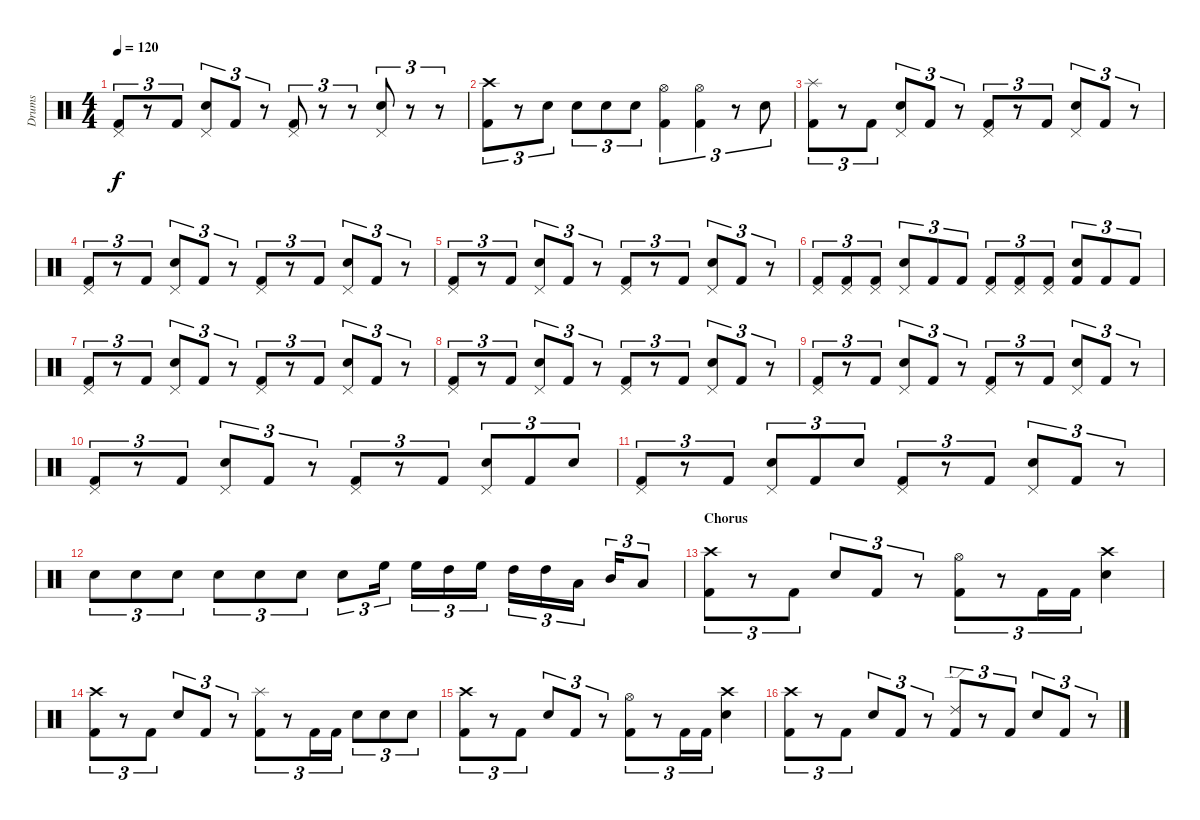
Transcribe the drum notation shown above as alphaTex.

\track ("Drums" "Drums") {instrument percussion}
\staff {score}
\articulation defaults
\ts (4 4)
\tempo 120
\clef neutral
\ks c
("Pedal Hi-Hat (hit)" "Kick (hit) 2").8{tu (3 2) dy f} r.8{tu (3 2)} "Kick (hit) 2".8{tu (3 2)} ("Pedal Hi-Hat (hit)" "Snare (hit) 2").8{tu (3 2)} "Kick (hit) 2".8{tu (3 2)} r.8{tu (3 2)} ("Pedal Hi-Hat (hit)" "Kick (hit) 2").8{tu (3 2)} r.8{tu (3 2)} r.8{tu (3 2)} ("Pedal Hi-Hat (hit)" "Snare (hit) 2").8{tu (3 2)} r.8{tu (3 2)} r.8{tu (3 2)} |
("Crash high (hit)" "Kick (hit) 2").8{tu (3 2)} r.8{tu (3 2)} "Snare (hit) 2".8{tu (3 2)} "Snare (hit) 2".8{tu (3 2)} "Snare (hit) 2".8{tu (3 2)} "Snare (hit) 2".8{tu (3 2)} ("Hi-Hat (open)" "Kick (hit) 2").4{tu (3 2)} ("Hi-Hat (open)" "Kick (hit) 2").4{tu (3 2)} r.8{tu (3 2)} "Snare (hit) 2".8{tu (3 2)} |
("Splash (hit)" "Kick (hit) 2").8{tu (3 2)} r.8{tu (3 2)} "Kick (hit) 2".8{tu (3 2)} ("Pedal Hi-Hat (hit)" "Snare (hit) 2").8{tu (3 2)} "Kick (hit) 2".8{tu (3 2)} r.8{tu (3 2)} ("Pedal Hi-Hat (hit)" "Kick (hit) 2").8{tu (3 2)} r.8{tu (3 2)} "Kick (hit) 2".8{tu (3 2)} ("Pedal Hi-Hat (hit)" "Snare (hit) 2").8{tu (3 2)} "Kick (hit) 2".8{tu (3 2)} r.8{tu (3 2)} |
("Pedal Hi-Hat (hit)" "Kick (hit) 2").8{tu (3 2)} r.8{tu (3 2)} "Kick (hit) 2".8{tu (3 2)} ("Pedal Hi-Hat (hit)" "Snare (hit) 2").8{tu (3 2)} "Kick (hit) 2".8{tu (3 2)} r.8{tu (3 2)} ("Pedal Hi-Hat (hit)" "Kick (hit) 2").8{tu (3 2)} r.8{tu (3 2)} "Kick (hit) 2".8{tu (3 2)} ("Pedal Hi-Hat (hit)" "Snare (hit) 2").8{tu (3 2)} "Kick (hit) 2".8{tu (3 2)} r.8{tu (3 2)} |
("Pedal Hi-Hat (hit)" "Kick (hit) 2").8{tu (3 2)} r.8{tu (3 2)} "Kick (hit) 2".8{tu (3 2)} ("Pedal Hi-Hat (hit)" "Snare (hit) 2").8{tu (3 2)} "Kick (hit) 2".8{tu (3 2)} r.8{tu (3 2)} ("Pedal Hi-Hat (hit)" "Kick (hit) 2").8{tu (3 2)} r.8{tu (3 2)} "Kick (hit) 2".8{tu (3 2)} ("Pedal Hi-Hat (hit)" "Snare (hit) 2").8{tu (3 2)} "Kick (hit) 2".8{tu (3 2)} r.8{tu (3 2)} |
("Pedal Hi-Hat (hit)" "Kick (hit) 2").8{tu (3 2)} ("Pedal Hi-Hat (hit)" "Kick (hit) 2").8{tu (3 2)} ("Pedal Hi-Hat (hit)" "Kick (hit) 2").8{tu (3 2)} ("Pedal Hi-Hat (hit)" "Snare (hit) 2").8{tu (3 2)} "Kick (hit) 2".8{tu (3 2)} "Kick (hit) 2".8{tu (3 2)} ("Pedal Hi-Hat (hit)" "Kick (hit) 2").8{tu (3 2)} ("Pedal Hi-Hat (hit)" "Kick (hit) 2").8{tu (3 2)} ("Pedal Hi-Hat (hit)" "Kick (hit) 2").8{tu (3 2)} ("Snare (hit) 2" "Kick (hit) 2").8{tu (3 2)} "Kick (hit) 2".8{tu (3 2)} "Kick (hit) 2".8{tu (3 2)} |
("Pedal Hi-Hat (hit)" "Kick (hit) 2").8{tu (3 2)} r.8{tu (3 2)} "Kick (hit) 2".8{tu (3 2)} ("Pedal Hi-Hat (hit)" "Snare (hit) 2").8{tu (3 2)} "Kick (hit) 2".8{tu (3 2)} r.8{tu (3 2)} ("Pedal Hi-Hat (hit)" "Kick (hit) 2").8{tu (3 2)} r.8{tu (3 2)} "Kick (hit) 2".8{tu (3 2)} ("Pedal Hi-Hat (hit)" "Snare (hit) 2").8{tu (3 2)} "Kick (hit) 2".8{tu (3 2)} r.8{tu (3 2)} |
("Pedal Hi-Hat (hit)" "Kick (hit) 2").8{tu (3 2)} r.8{tu (3 2)} "Kick (hit) 2".8{tu (3 2)} ("Pedal Hi-Hat (hit)" "Snare (hit) 2").8{tu (3 2)} "Kick (hit) 2".8{tu (3 2)} r.8{tu (3 2)} ("Pedal Hi-Hat (hit)" "Kick (hit) 2").8{tu (3 2)} r.8{tu (3 2)} "Kick (hit) 2".8{tu (3 2)} ("Pedal Hi-Hat (hit)" "Snare (hit) 2").8{tu (3 2)} "Kick (hit) 2".8{tu (3 2)} r.8{tu (3 2)} |
("Pedal Hi-Hat (hit)" "Kick (hit) 2").8{tu (3 2)} r.8{tu (3 2)} "Kick (hit) 2".8{tu (3 2)} ("Pedal Hi-Hat (hit)" "Snare (hit) 2").8{tu (3 2)} "Kick (hit) 2".8{tu (3 2)} r.8{tu (3 2)} ("Pedal Hi-Hat (hit)" "Kick (hit) 2").8{tu (3 2)} r.8{tu (3 2)} "Kick (hit) 2".8{tu (3 2)} ("Pedal Hi-Hat (hit)" "Snare (hit) 2").8{tu (3 2)} "Kick (hit) 2".8{tu (3 2)} r.8{tu (3 2)} |
("Pedal Hi-Hat (hit)" "Kick (hit) 2").8{tu (3 2)} r.8{tu (3 2)} "Kick (hit) 2".8{tu (3 2)} ("Pedal Hi-Hat (hit)" "Snare (hit) 2").8{tu (3 2)} "Kick (hit) 2".8{tu (3 2)} r.8{tu (3 2)} ("Pedal Hi-Hat (hit)" "Kick (hit) 2").8{tu (3 2)} r.8{tu (3 2)} "Kick (hit) 2".8{tu (3 2)} ("Pedal Hi-Hat (hit)" "Snare (hit) 2").8{tu (3 2)} "Kick (hit) 2".8{tu (3 2)} "Snare (hit) 2".8{tu (3 2)} |
("Pedal Hi-Hat (hit)" "Kick (hit) 2").8{tu (3 2)} r.8{tu (3 2)} "Kick (hit) 2".8{tu (3 2)} ("Pedal Hi-Hat (hit)" "Snare (hit) 2").8{tu (3 2)} "Kick (hit) 2".8{tu (3 2)} "Snare (hit) 2".8{tu (3 2)} ("Pedal Hi-Hat (hit)" "Kick (hit) 2").8{tu (3 2)} r.8{tu (3 2)} "Kick (hit) 2".8{tu (3 2)} ("Pedal Hi-Hat (hit)" "Snare (hit) 2").8{tu (3 2)} "Kick (hit) 2".8{tu (3 2)} r.8{tu (3 2)} |
"Snare (hit) 2".8{tu (3 2)} "Snare (hit) 2".8{tu (3 2)} "Snare (hit) 2".8{tu (3 2)} "Snare (hit) 2".8{tu (3 2)} "Snare (hit) 2".8{tu (3 2)} "Snare (hit) 2".8{tu (3 2)} "Snare (hit) 2".8{tu (3 2)} "High Floor Tom (hit)".16{tu (3 2)} "High Floor Tom (hit)".16{tu (3 2)} "High Tom (hit)".16{tu (3 2)} "High Floor Tom (hit)".16{tu (3 2)} "High Tom (hit)".16{tu (3 2)} "High Tom (hit)".16{tu (3 2)} "Low Tom (hit)".16{tu (3 2)} "Mid Tom (hit)".16{tu (3 2)} "Low Tom (hit)".8{tu (3 2)} |
\section ("" "Chorus")
("Crash high (hit)" "Kick (hit) 2").8{tu (3 2)} r.8{tu (3 2)} "Kick (hit) 2".8{tu (3 2)} "Snare (hit) 2".8{tu (3 2)} "Kick (hit) 2".8{tu (3 2)} r.8{tu (3 2)} ("Hi-Hat (open)" "Kick (hit) 2").8{tu (3 2)} r.8{tu (3 2)} "Kick (hit) 2".16{tu (3 2)} "Kick (hit) 2".16{tu (3 2)} ("Crash high (hit)" "Snare (hit) 2").4 |
("Crash high (hit)" "Kick (hit) 2").8{tu (3 2)} r.8{tu (3 2)} "Kick (hit) 2".8{tu (3 2)} "Snare (hit) 2".8{tu (3 2)} "Kick (hit) 2".8{tu (3 2)} r.8{tu (3 2)} ("Splash (hit)" "Kick (hit) 2").8{tu (3 2)} r.8{tu (3 2)} "Kick (hit) 2".16{tu (3 2)} "Kick (hit) 2".16{tu (3 2)} "Snare (hit) 2".8{tu (3 2)} "Snare (hit) 2".8{tu (3 2)} "Snare (hit) 2".8{tu (3 2)} |
("Crash high (hit)" "Kick (hit) 2").8{tu (3 2)} r.8{tu (3 2)} "Kick (hit) 2".8{tu (3 2)} "Snare (hit) 2".8{tu (3 2)} "Kick (hit) 2".8{tu (3 2)} r.8{tu (3 2)} ("Hi-Hat (open)" "Kick (hit) 2").8{tu (3 2)} r.8{tu (3 2)} "Kick (hit) 2".16{tu (3 2)} "Kick (hit) 2".16{tu (3 2)} ("Crash high (hit)" "Snare (hit) 2").4 |
("Crash high (hit)" "Kick (hit) 2").8{tu (3 2)} r.8{tu (3 2)} "Kick (hit) 2".8{tu (3 2)} "Snare (hit) 2".8{tu (3 2)} "Kick (hit) 2".8{tu (3 2)} r.8{tu (3 2)} ("Ride (edge) 2" "Kick (hit) 2").8{tu (3 2)} r.8{tu (3 2)} "Kick (hit) 2".8{tu (3 2)} "Snare (hit) 2".8{tu (3 2)} "Kick (hit) 2".8{tu (3 2)} r.8{tu (3 2)}
